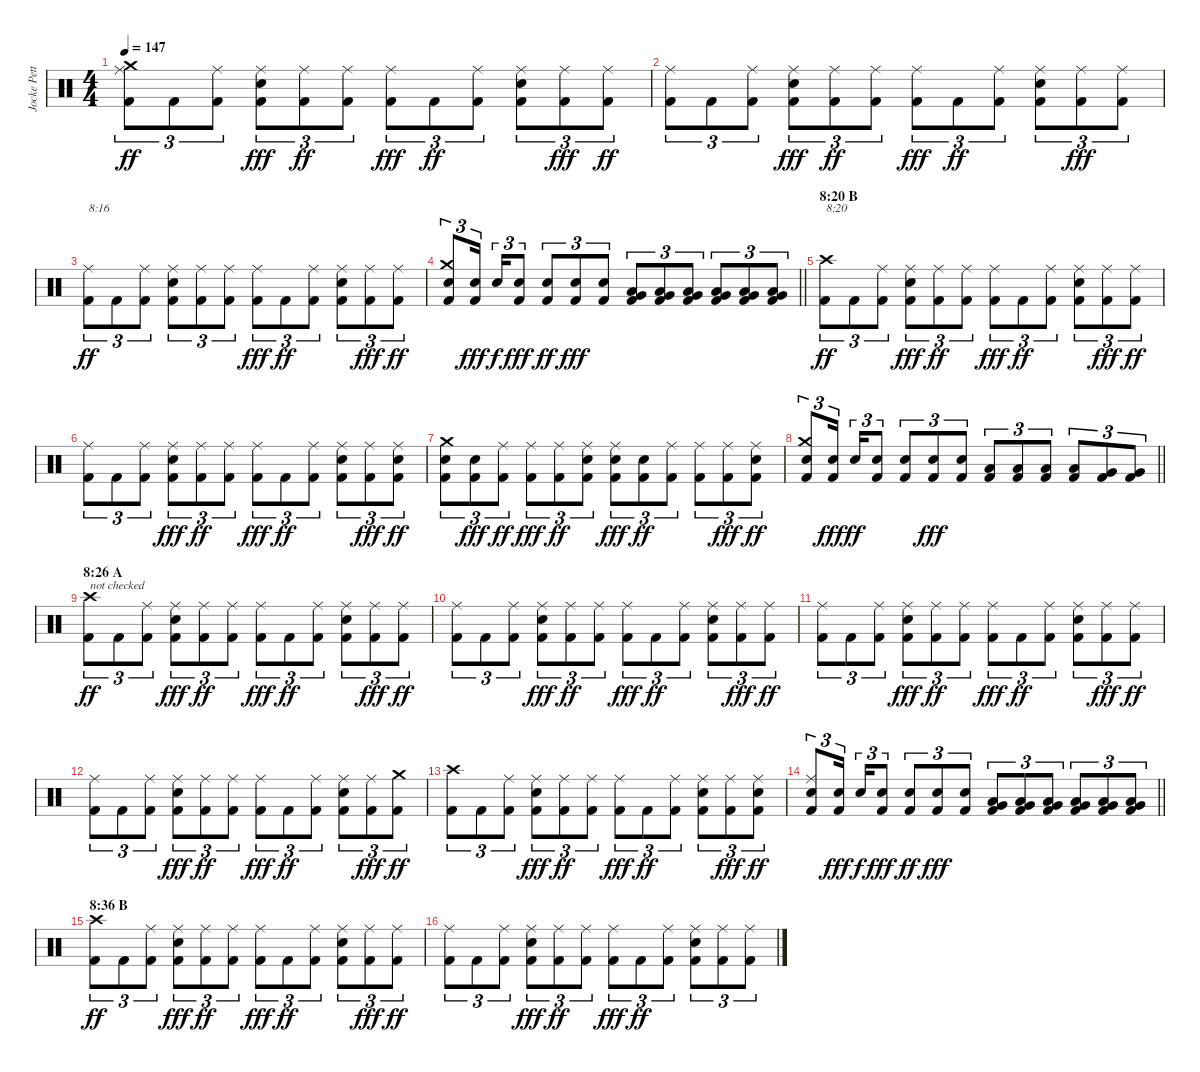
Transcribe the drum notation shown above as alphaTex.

\track ("Jocke Pettersson" "Jocke Pett") {instrument percussion}
\staff {score}
\articulation defaults
\ts (4 4)
\tempo 147
\clef neutral
\ks c
("Kick (hit) 2" "Ride (middle)" "Crash medium (hit)").8{tu (3 2) dy ff} "Kick (hit) 2".8{tu (3 2)} ("Kick (hit) 2" "Ride (middle)").8{tu (3 2)} ("Kick (hit) 2" "Electric Snare (hit)" "Ride (middle)").8{tu (3 2) dy fff} ("Kick (hit) 2" "Ride (middle)").8{tu (3 2) dy ff} ("Kick (hit) 2" "Ride (middle)").8{tu (3 2)} ("Kick (hit) 2" "Ride (middle)").8{tu (3 2) dy fff} "Kick (hit) 2".8{tu (3 2) dy ff} ("Kick (hit) 2" "Ride (middle)").8{tu (3 2)} ("Kick (hit) 2" "Electric Snare (hit)" "Ride (middle)").8{tu (3 2)} ("Kick (hit) 2" "Ride (middle)").8{tu (3 2) dy fff} ("Kick (hit) 2" "Ride (middle)").8{tu (3 2) dy ff} |
("Kick (hit) 2" "Ride (middle)").8{tu (3 2)} "Kick (hit) 2".8{tu (3 2)} ("Kick (hit) 2" "Ride (middle)").8{tu (3 2)} ("Kick (hit) 2" "Electric Snare (hit)" "Ride (middle)").8{tu (3 2) dy fff} ("Kick (hit) 2" "Ride (middle)").8{tu (3 2) dy ff} ("Kick (hit) 2" "Ride (middle)").8{tu (3 2)} ("Kick (hit) 2" "Ride (middle)").8{tu (3 2) dy fff} "Kick (hit) 2".8{tu (3 2) dy ff} ("Kick (hit) 2" "Ride (middle)").8{tu (3 2)} ("Kick (hit) 2" "Electric Snare (hit)" "Ride (middle)").8{tu (3 2)} ("Kick (hit) 2" "Ride (middle)").8{tu (3 2) dy fff} ("Kick (hit) 2" "Ride (middle)").8{tu (3 2)} |
("Kick (hit) 2" "Ride (middle)").8{tu (3 2) txt "8:16" dy ff} "Kick (hit) 2".8{tu (3 2)} ("Kick (hit) 2" "Ride (middle)").8{tu (3 2)} ("Kick (hit) 2" "Electric Snare (hit)" "Ride (middle)").8{tu (3 2)} ("Kick (hit) 2" "Ride (middle)").8{tu (3 2)} ("Kick (hit) 2" "Ride (middle)").8{tu (3 2)} ("Kick (hit) 2" "Ride (middle)").8{tu (3 2) dy fff} "Kick (hit) 2".8{tu (3 2) dy ff} ("Kick (hit) 2" "Ride (middle)").8{tu (3 2)} ("Kick (hit) 2" "Electric Snare (hit)" "Ride (middle)").8{tu (3 2)} ("Kick (hit) 2" "Ride (middle)").8{tu (3 2) dy fff} ("Kick (hit) 2" "Ride (middle)").8{tu (3 2) dy ff} |
\barLineRight lightlight
("Kick (hit) 2" "Electric Snare (hit)" "Crash medium (hit)").8{tu (3 2)} ("Kick (hit) 2" "Electric Snare (hit)").16{tu (3 2) dy fff beam splitsecondary} "Electric Snare (hit)".16{tu (3 2) dy f} ("Kick (hit) 2" "Electric Snare (hit)").8{tu (3 2) dy fff} ("Kick (hit) 2" "Electric Snare (hit)").8{tu (3 2) dy ff} ("Kick (hit) 2" "Electric Snare (hit)").8{tu (3 2) dy fff} ("Kick (hit) 2" "Electric Snare (hit)").8{tu (3 2)} ("Kick (hit) 2" "Low Tom (hit)" "Very Low Tom (hit)").8{tu (3 2)} ("Kick (hit) 2" "Low Tom (hit)" "Very Low Tom (hit)").8{tu (3 2)} ("Kick (hit) 2" "Low Tom (hit)" "Very Low Tom (hit)").8{tu (3 2)} ("Kick (hit) 2" "Very Low Tom (hit)" "Low Floor Tom (hit)").8{tu (3 2)} ("Kick (hit) 2" "Very Low Tom (hit)" "Low Floor Tom (hit)").8{tu (3 2)} ("Kick (hit) 2" "Very Low Tom (hit)" "Low Floor Tom (hit)").8{tu (3 2)} |
\section ("" "8:20 B")
("Kick (hit) 2" "Crash high (hit)").8{tu (3 2) txt "8:20" dy ff} "Kick (hit) 2".8{tu (3 2)} ("Kick (hit) 2" "Ride (middle)").8{tu (3 2)} ("Kick (hit) 2" "Electric Snare (hit)" "Ride (middle)").8{tu (3 2) dy fff} ("Kick (hit) 2" "Ride (middle)").8{tu (3 2) dy ff} ("Kick (hit) 2" "Ride (middle)").8{tu (3 2)} ("Kick (hit) 2" "Ride (middle)").8{tu (3 2) dy fff} "Kick (hit) 2".8{tu (3 2) dy ff} ("Kick (hit) 2" "Ride (middle)").8{tu (3 2)} ("Kick (hit) 2" "Electric Snare (hit)" "Ride (middle)").8{tu (3 2)} ("Kick (hit) 2" "Ride (middle)").8{tu (3 2) dy fff} ("Kick (hit) 2" "Ride (middle)").8{tu (3 2) dy ff} |
("Kick (hit) 2" "Ride (middle)").8{tu (3 2)} "Kick (hit) 2".8{tu (3 2)} ("Kick (hit) 2" "Ride (middle)").8{tu (3 2)} ("Kick (hit) 2" "Electric Snare (hit)" "Ride (middle)").8{tu (3 2) dy fff} ("Kick (hit) 2" "Ride (middle)").8{tu (3 2) dy ff} ("Kick (hit) 2" "Ride (middle)").8{tu (3 2)} ("Kick (hit) 2" "Ride (middle)").8{tu (3 2) dy fff} "Kick (hit) 2".8{tu (3 2) dy ff} ("Kick (hit) 2" "Ride (middle)").8{tu (3 2)} ("Kick (hit) 2" "Electric Snare (hit)" "Ride (middle)").8{tu (3 2)} ("Kick (hit) 2" "Ride (middle)").8{tu (3 2) dy fff} ("Kick (hit) 2" "Electric Snare (hit)" "Ride (middle)").8{tu (3 2) dy ff} |
("Kick (hit) 2" "Electric Snare (hit)" "Crash medium (hit)").8{tu (3 2)} ("Kick (hit) 2" "Electric Snare (hit)").8{tu (3 2) dy fff} ("Kick (hit) 2" "Ride (middle)").8{tu (3 2) dy ff} ("Kick (hit) 2" "Ride (middle)").8{tu (3 2) dy fff} ("Kick (hit) 2" "Ride (middle)").8{tu (3 2) dy ff} ("Kick (hit) 2" "Electric Snare (hit)" "Ride (middle)").8{tu (3 2)} ("Kick (hit) 2" "Electric Snare (hit)" "Ride (middle)").8{tu (3 2) dy fff} ("Kick (hit) 2" "Electric Snare (hit)").8{tu (3 2) dy ff} ("Kick (hit) 2" "Ride (middle)").8{tu (3 2)} ("Kick (hit) 2" "Ride (middle)").8{tu (3 2)} ("Kick (hit) 2" "Ride (middle)").8{tu (3 2) dy fff} ("Kick (hit) 2" "Electric Snare (hit)" "Ride (middle)").8{tu (3 2) dy ff} |
\barLineRight lightlight
("Kick (hit) 2" "Electric Snare (hit)" "Crash medium (hit)").8{tu (3 2)} ("Kick (hit) 2" "Electric Snare (hit)").16{tu (3 2) dy fff beam splitsecondary} "Electric Snare (hit)".16{tu (3 2) dy ff} ("Kick (hit) 2" "Electric Snare (hit)").8{tu (3 2)} ("Kick (hit) 2" "Electric Snare (hit)").8{tu (3 2)} ("Kick (hit) 2" "Electric Snare (hit)").8{tu (3 2) dy fff} ("Kick (hit) 2" "Electric Snare (hit)").8{tu (3 2)} ("Kick (hit) 2" "Low Tom (hit)").8{tu (3 2)} ("Kick (hit) 2" "Low Tom (hit)").8{tu (3 2)} ("Kick (hit) 2" "Low Tom (hit)").8{tu (3 2)} ("Kick (hit) 2" "Low Tom (hit)").8{tu (3 2)} ("Kick (hit) 2" "Very Low Tom (hit)").8{tu (3 2)} ("Kick (hit) 2" "Very Low Tom (hit)").8{tu (3 2)} |
\section ("" "8:26 A")
("Kick (hit) 2" "Crash high (hit)").8{tu (3 2) txt "not checked" dy ff} "Kick (hit) 2".8{tu (3 2)} ("Kick (hit) 2" "Ride (middle)").8{tu (3 2)} ("Kick (hit) 2" "Electric Snare (hit)" "Ride (middle)").8{tu (3 2) dy fff} ("Kick (hit) 2" "Ride (middle)").8{tu (3 2) dy ff} ("Kick (hit) 2" "Ride (middle)").8{tu (3 2)} ("Kick (hit) 2" "Ride (middle)").8{tu (3 2) dy fff} "Kick (hit) 2".8{tu (3 2) dy ff} ("Kick (hit) 2" "Ride (middle)").8{tu (3 2)} ("Kick (hit) 2" "Electric Snare (hit)" "Ride (middle)").8{tu (3 2)} ("Kick (hit) 2" "Ride (middle)").8{tu (3 2) dy fff} ("Kick (hit) 2" "Ride (middle)").8{tu (3 2) dy ff} |
("Kick (hit) 2" "Ride (middle)").8{tu (3 2)} "Kick (hit) 2".8{tu (3 2)} ("Kick (hit) 2" "Ride (middle)").8{tu (3 2)} ("Kick (hit) 2" "Electric Snare (hit)" "Ride (middle)").8{tu (3 2) dy fff} ("Kick (hit) 2" "Ride (middle)").8{tu (3 2) dy ff} ("Kick (hit) 2" "Ride (middle)").8{tu (3 2)} ("Kick (hit) 2" "Ride (middle)").8{tu (3 2) dy fff} "Kick (hit) 2".8{tu (3 2) dy ff} ("Kick (hit) 2" "Ride (middle)").8{tu (3 2)} ("Kick (hit) 2" "Electric Snare (hit)" "Ride (middle)").8{tu (3 2)} ("Kick (hit) 2" "Ride (middle)").8{tu (3 2) dy fff} ("Kick (hit) 2" "Ride (middle)").8{tu (3 2) dy ff} |
("Kick (hit) 2" "Ride (middle)").8{tu (3 2)} "Kick (hit) 2".8{tu (3 2)} ("Kick (hit) 2" "Ride (middle)").8{tu (3 2)} ("Kick (hit) 2" "Electric Snare (hit)" "Ride (middle)").8{tu (3 2) dy fff} ("Kick (hit) 2" "Ride (middle)").8{tu (3 2) dy ff} ("Kick (hit) 2" "Ride (middle)").8{tu (3 2)} ("Kick (hit) 2" "Ride (middle)").8{tu (3 2) dy fff} "Kick (hit) 2".8{tu (3 2) dy ff} ("Kick (hit) 2" "Ride (middle)").8{tu (3 2)} ("Kick (hit) 2" "Electric Snare (hit)" "Ride (middle)").8{tu (3 2)} ("Kick (hit) 2" "Ride (middle)").8{tu (3 2) dy fff} ("Kick (hit) 2" "Ride (middle)").8{tu (3 2) dy ff} |
("Kick (hit) 2" "Ride (middle)").8{tu (3 2)} "Kick (hit) 2".8{tu (3 2)} ("Kick (hit) 2" "Ride (middle)").8{tu (3 2)} ("Kick (hit) 2" "Electric Snare (hit)" "Ride (middle)").8{tu (3 2) dy fff} ("Kick (hit) 2" "Ride (middle)").8{tu (3 2) dy ff} ("Kick (hit) 2" "Ride (middle)").8{tu (3 2)} ("Kick (hit) 2" "Ride (middle)").8{tu (3 2) dy fff} "Kick (hit) 2".8{tu (3 2) dy ff} ("Kick (hit) 2" "Ride (middle)").8{tu (3 2)} ("Kick (hit) 2" "Electric Snare (hit)" "Ride (middle)").8{tu (3 2)} ("Kick (hit) 2" "Ride (middle)").8{tu (3 2) dy fff} ("Kick (hit) 2" "Crash medium (hit)").8{tu (3 2) dy ff} |
("Kick (hit) 2" "Crash high (hit)").8{tu (3 2)} "Kick (hit) 2".8{tu (3 2)} ("Kick (hit) 2" "Ride (middle)").8{tu (3 2)} ("Kick (hit) 2" "Electric Snare (hit)" "Ride (middle)").8{tu (3 2) dy fff} ("Kick (hit) 2" "Ride (middle)").8{tu (3 2) dy ff} ("Kick (hit) 2" "Ride (middle)").8{tu (3 2)} ("Kick (hit) 2" "Ride (middle)").8{tu (3 2) dy fff} "Kick (hit) 2".8{tu (3 2) dy ff} ("Kick (hit) 2" "Ride (middle)").8{tu (3 2)} ("Kick (hit) 2" "Electric Snare (hit)" "Ride (middle)").8{tu (3 2)} ("Kick (hit) 2" "Ride (middle)").8{tu (3 2) dy fff} ("Kick (hit) 2" "Electric Snare (hit)" "Ride (middle)").8{tu (3 2) dy ff} |
\barLineRight lightlight
("Kick (hit) 2" "Electric Snare (hit)" "Ride (middle)").8{tu (3 2)} ("Kick (hit) 2" "Electric Snare (hit)").16{tu (3 2) dy fff beam splitsecondary} "Electric Snare (hit)".16{tu (3 2) dy f} ("Kick (hit) 2" "Electric Snare (hit)").8{tu (3 2) dy fff} ("Kick (hit) 2" "Electric Snare (hit)").8{tu (3 2) dy ff} ("Kick (hit) 2" "Electric Snare (hit)").8{tu (3 2) dy fff} ("Kick (hit) 2" "Electric Snare (hit)").8{tu (3 2)} ("Kick (hit) 2" "Low Tom (hit)" "Very Low Tom (hit)").8{tu (3 2)} ("Kick (hit) 2" "Low Tom (hit)" "Very Low Tom (hit)").8{tu (3 2)} ("Kick (hit) 2" "Low Tom (hit)" "Very Low Tom (hit)").8{tu (3 2)} ("Kick (hit) 2" "Very Low Tom (hit)" "Low Floor Tom (hit)").8{tu (3 2)} ("Kick (hit) 2" "Very Low Tom (hit)" "Low Floor Tom (hit)").8{tu (3 2)} ("Kick (hit) 2" "Very Low Tom (hit)" "Low Floor Tom (hit)").8{tu (3 2)} |
\section ("" "8:36 B")
("Kick (hit) 2" "Crash high (hit)").8{tu (3 2) dy ff} "Kick (hit) 2".8{tu (3 2)} ("Kick (hit) 2" "Ride (middle)").8{tu (3 2)} ("Kick (hit) 2" "Electric Snare (hit)" "Ride (middle)").8{tu (3 2) dy fff} ("Kick (hit) 2" "Ride (middle)").8{tu (3 2) dy ff} ("Kick (hit) 2" "Ride (middle)").8{tu (3 2)} ("Kick (hit) 2" "Ride (middle)").8{tu (3 2) dy fff} "Kick (hit) 2".8{tu (3 2) dy ff} ("Kick (hit) 2" "Ride (middle)").8{tu (3 2)} ("Kick (hit) 2" "Electric Snare (hit)" "Ride (middle)").8{tu (3 2)} ("Kick (hit) 2" "Ride (middle)").8{tu (3 2) dy fff} ("Kick (hit) 2" "Ride (middle)").8{tu (3 2) dy ff} |
("Kick (hit) 2" "Ride (middle)").8{tu (3 2)} "Kick (hit) 2".8{tu (3 2)} ("Kick (hit) 2" "Ride (middle)").8{tu (3 2)} ("Kick (hit) 2" "Electric Snare (hit)" "Ride (middle)").8{tu (3 2) dy fff} ("Kick (hit) 2" "Ride (middle)").8{tu (3 2) dy ff} ("Kick (hit) 2" "Ride (middle)").8{tu (3 2)} ("Kick (hit) 2" "Ride (middle)").8{tu (3 2) dy fff} "Kick (hit) 2".8{tu (3 2) dy ff} ("Kick (hit) 2" "Ride (middle)").8{tu (3 2)} ("Kick (hit) 2" "Electric Snare (hit)" "Ride (middle)").8{tu (3 2)} ("Kick (hit) 2" "Ride (middle)").8{tu (3 2)} ("Kick (hit) 2" "Ride (middle)").8{tu (3 2)}
